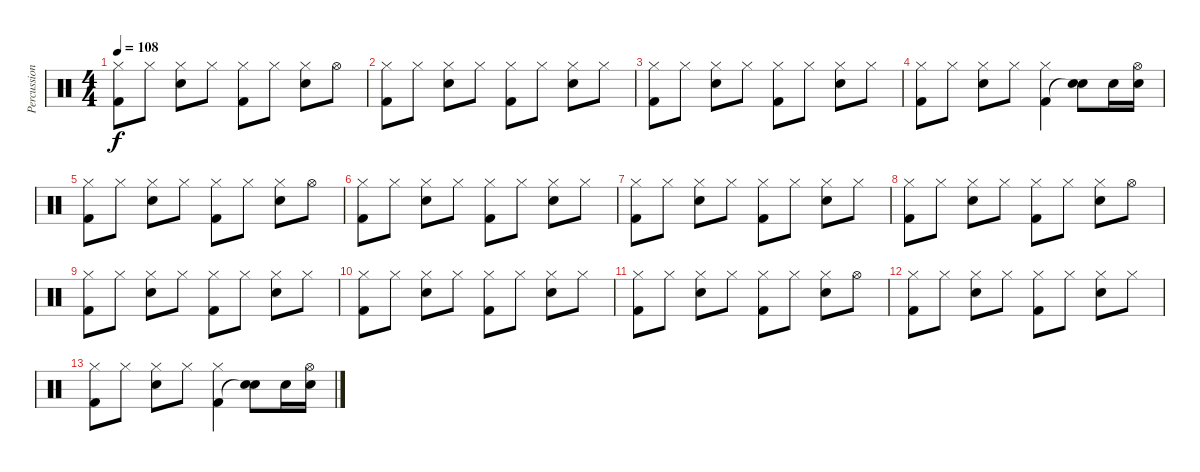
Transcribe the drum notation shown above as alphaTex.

\track ("Percussion" "Percussion") {instrument percussion}
\staff {score}
\articulation defaults
\ts (4 4)
\tempo 108
\clef neutral
\ks c
("Hi-Hat (closed)" "Kick (hit) 2").8{dy f} "Hi-Hat (closed)".8 ("Hi-Hat (closed)" "Snare (hit) 2").8 "Hi-Hat (closed)".8 ("Hi-Hat (closed)" "Kick (hit) 2").8 "Hi-Hat (closed)".8 ("Hi-Hat (closed)" "Snare (hit) 2").8 "Hi-Hat (open)".8 |
("Hi-Hat (closed)" "Kick (hit) 2").8 "Hi-Hat (closed)".8 ("Hi-Hat (closed)" "Snare (hit) 2").8 "Hi-Hat (closed)".8 ("Hi-Hat (closed)" "Kick (hit) 2").8 "Hi-Hat (closed)".8 ("Hi-Hat (closed)" "Snare (hit) 2").8 "Hi-Hat (closed)".8 |
("Hi-Hat (closed)" "Kick (hit) 2").8 "Hi-Hat (closed)".8 ("Hi-Hat (closed)" "Snare (hit) 2").8 "Hi-Hat (closed)".8 ("Hi-Hat (closed)" "Kick (hit) 2").8 "Hi-Hat (closed)".8 ("Hi-Hat (closed)" "Snare (hit) 2").8 "Hi-Hat (closed)".8 |
("Hi-Hat (closed)" "Kick (hit) 2").8 "Hi-Hat (closed)".8 ("Hi-Hat (closed)" "Snare (hit) 2").8 "Hi-Hat (closed)".8 ("Hi-Hat (closed)" "Kick (hit) 2").4 ("Snare (hit) 2" "Snare (hit)"{t}).8 "Snare (hit) 2".16 ("Hi-Hat (open)" "Snare (hit) 2").16 |
("Hi-Hat (closed)" "Kick (hit) 2").8 "Hi-Hat (closed)".8 ("Hi-Hat (closed)" "Snare (hit) 2").8 "Hi-Hat (closed)".8 ("Hi-Hat (closed)" "Kick (hit) 2").8 "Hi-Hat (closed)".8 ("Hi-Hat (closed)" "Snare (hit) 2").8 "Hi-Hat (open)".8 |
("Hi-Hat (closed)" "Kick (hit) 2").8 "Hi-Hat (closed)".8 ("Hi-Hat (closed)" "Snare (hit) 2").8 "Hi-Hat (closed)".8 ("Hi-Hat (closed)" "Kick (hit) 2").8 "Hi-Hat (closed)".8 ("Hi-Hat (closed)" "Snare (hit) 2").8 "Hi-Hat (closed)".8 |
("Hi-Hat (closed)" "Kick (hit) 2").8 "Hi-Hat (closed)".8 ("Hi-Hat (closed)" "Snare (hit) 2").8 "Hi-Hat (closed)".8 ("Hi-Hat (closed)" "Kick (hit) 2").8 "Hi-Hat (closed)".8 ("Hi-Hat (closed)" "Snare (hit) 2").8 "Hi-Hat (closed)".8 |
("Hi-Hat (closed)" "Kick (hit) 2").8 "Hi-Hat (closed)".8 ("Hi-Hat (closed)" "Snare (hit) 2").8 "Hi-Hat (closed)".8 ("Hi-Hat (closed)" "Kick (hit) 2").8 "Hi-Hat (closed)".8 ("Hi-Hat (closed)" "Snare (hit) 2").8 "Hi-Hat (open)".8 |
("Hi-Hat (closed)" "Kick (hit) 2").8 "Hi-Hat (closed)".8 ("Hi-Hat (closed)" "Snare (hit) 2").8 "Hi-Hat (closed)".8 ("Hi-Hat (closed)" "Kick (hit) 2").8 "Hi-Hat (closed)".8 ("Hi-Hat (closed)" "Snare (hit) 2").8 "Hi-Hat (closed)".8 |
("Hi-Hat (closed)" "Kick (hit) 2").8 "Hi-Hat (closed)".8 ("Hi-Hat (closed)" "Snare (hit) 2").8 "Hi-Hat (closed)".8 ("Hi-Hat (closed)" "Kick (hit) 2").8 "Hi-Hat (closed)".8 ("Hi-Hat (closed)" "Snare (hit) 2").8 "Hi-Hat (closed)".8 |
("Hi-Hat (closed)" "Kick (hit) 2").8 "Hi-Hat (closed)".8 ("Hi-Hat (closed)" "Snare (hit) 2").8 "Hi-Hat (closed)".8 ("Hi-Hat (closed)" "Kick (hit) 2").8 "Hi-Hat (closed)".8 ("Hi-Hat (closed)" "Snare (hit) 2").8 "Hi-Hat (open)".8 |
("Hi-Hat (closed)" "Kick (hit) 2").8 "Hi-Hat (closed)".8 ("Hi-Hat (closed)" "Snare (hit) 2").8 "Hi-Hat (closed)".8 ("Hi-Hat (closed)" "Kick (hit) 2").8 "Hi-Hat (closed)".8 ("Hi-Hat (closed)" "Snare (hit) 2").8 "Hi-Hat (closed)".8 |
("Hi-Hat (closed)" "Kick (hit) 2").8 "Hi-Hat (closed)".8 ("Hi-Hat (closed)" "Snare (hit) 2").8 "Hi-Hat (closed)".8 ("Hi-Hat (closed)" "Kick (hit) 2").4 ("Snare (hit) 2" "Snare (hit)"{t}).8 "Snare (hit) 2".16 ("Hi-Hat (open)" "Snare (hit) 2").16
